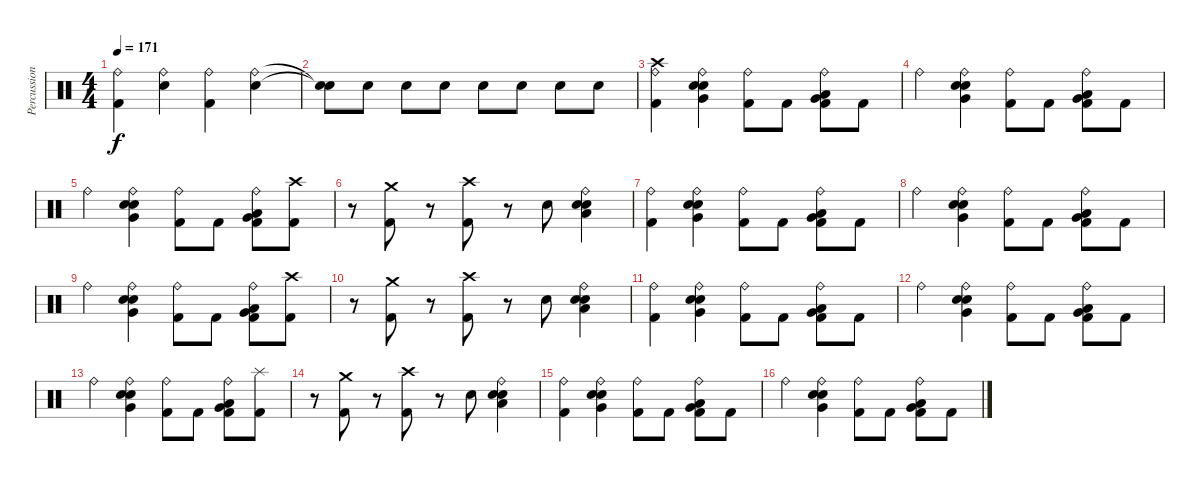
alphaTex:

\track ("Percussion" "Percussion") {instrument percussion}
\staff {score}
\articulation defaults
\ts (4 4)
\tempo 171
\clef neutral
\ks c
("Ride (bell)" "Kick (hit) 2").4{dy f} ("Ride (bell)" "Metronome (bell)").4 ("Ride (bell)" "Kick (hit) 2").4 ("Ride (bell)" "Metronome (bell)").4 |
("Snare (hit)"{t} "Snare (hit)"{t}).8 "Metronome (bell)".8 "Metronome (bell)".8 "Metronome (bell)".8 "Metronome (bell)".8 "Metronome (bell)".8 "Metronome (bell)".8 "Metronome (bell)".8 |
("Ride (bell)" "Crash high (hit)" "Kick (hit) 2").4 ("Ride (bell)" "Very Low Tom (hit)" "Metronome (bell)" "Electric Snare (hit)").4 ("Ride (bell)" "Kick (hit) 2").8 "Kick (hit) 2".8 ("Ride (bell)" "Very Low Tom (hit)" "Low Floor Tom (hit)" "Kick (hit) 2").8 "Kick (hit) 2".8 |
"Ride (bell)".4 ("Ride (bell)" "Very Low Tom (hit)" "Metronome (bell)" "Electric Snare (hit)").4 ("Ride (bell)" "Kick (hit) 2").8 "Kick (hit) 2".8 ("Ride (bell)" "Very Low Tom (hit)" "Low Floor Tom (hit)" "Kick (hit) 2").8 "Kick (hit) 2".8 |
"Ride (bell)".4 ("Ride (bell)" "Very Low Tom (hit)" "Metronome (bell)" "Electric Snare (hit)").4 ("Ride (bell)" "Kick (hit) 2").8 "Kick (hit) 2".8 ("Ride (bell)" "Very Low Tom (hit)" "Low Floor Tom (hit)" "Kick (hit) 2").8 ("Crash high (hit)" "Kick (hit) 2").8 |
r.8 ("Crash medium (hit)" "Kick (hit) 2").8 r.8 ("Crash high (hit)" "Kick (hit) 2").8 r.8 "Metronome (bell)".8 ("Ride (bell)" "Low Floor Tom (hit)" "Electric Snare (hit)" "Metronome (bell)").4 |
("Ride (bell)" "Kick (hit) 2").4 ("Ride (bell)" "Very Low Tom (hit)" "Metronome (bell)" "Electric Snare (hit)").4 ("Ride (bell)" "Kick (hit) 2").8 "Kick (hit) 2".8 ("Ride (bell)" "Very Low Tom (hit)" "Low Floor Tom (hit)" "Kick (hit) 2").8 "Kick (hit) 2".8 |
"Ride (bell)".4 ("Ride (bell)" "Very Low Tom (hit)" "Metronome (bell)" "Electric Snare (hit)").4 ("Ride (bell)" "Kick (hit) 2").8 "Kick (hit) 2".8 ("Ride (bell)" "Very Low Tom (hit)" "Low Floor Tom (hit)" "Kick (hit) 2").8 "Kick (hit) 2".8 |
"Ride (bell)".4 ("Ride (bell)" "Very Low Tom (hit)" "Metronome (bell)" "Electric Snare (hit)").4 ("Ride (bell)" "Kick (hit) 2").8 "Kick (hit) 2".8 ("Ride (bell)" "Very Low Tom (hit)" "Low Floor Tom (hit)" "Kick (hit) 2").8 ("Crash high (hit)" "Kick (hit) 2").8 |
r.8 ("Crash medium (hit)" "Kick (hit) 2").8 r.8 ("Crash high (hit)" "Kick (hit) 2").8 r.8 "Metronome (bell)".8 ("Ride (bell)" "Low Floor Tom (hit)" "Electric Snare (hit)" "Metronome (bell)").4 |
("Ride (bell)" "Kick (hit) 2").4 ("Ride (bell)" "Very Low Tom (hit)" "Metronome (bell)" "Electric Snare (hit)").4 ("Ride (bell)" "Kick (hit) 2").8 "Kick (hit) 2".8 ("Ride (bell)" "Very Low Tom (hit)" "Low Floor Tom (hit)" "Kick (hit) 2").8 "Kick (hit) 2".8 |
"Ride (bell)".4 ("Ride (bell)" "Very Low Tom (hit)" "Metronome (bell)" "Electric Snare (hit)").4 ("Ride (bell)" "Kick (hit) 2").8 "Kick (hit) 2".8 ("Ride (bell)" "Very Low Tom (hit)" "Low Floor Tom (hit)" "Kick (hit) 2").8 "Kick (hit) 2".8 |
"Ride (bell)".4 ("Ride (bell)" "Very Low Tom (hit)" "Metronome (bell)" "Electric Snare (hit)").4 ("Ride (bell)" "Kick (hit) 2").8 "Kick (hit) 2".8 ("Ride (bell)" "Very Low Tom (hit)" "Low Floor Tom (hit)" "Kick (hit) 2").8 ("Splash (hit)" "Kick (hit) 2").8 |
r.8 ("Crash medium (hit)" "Kick (hit) 2").8 r.8 ("Crash high (hit)" "Kick (hit) 2").8 r.8 "Metronome (bell)".8 ("Ride (bell)" "Low Floor Tom (hit)" "Electric Snare (hit)" "Metronome (bell)").4 |
("Ride (bell)" "Kick (hit) 2").4 ("Ride (bell)" "Very Low Tom (hit)" "Metronome (bell)" "Electric Snare (hit)").4 ("Ride (bell)" "Kick (hit) 2").8 "Kick (hit) 2".8 ("Ride (bell)" "Very Low Tom (hit)" "Low Floor Tom (hit)" "Kick (hit) 2").8 "Kick (hit) 2".8 |
"Ride (bell)".4 ("Ride (bell)" "Very Low Tom (hit)" "Metronome (bell)" "Electric Snare (hit)").4 ("Ride (bell)" "Kick (hit) 2").8 "Kick (hit) 2".8 ("Ride (bell)" "Very Low Tom (hit)" "Low Floor Tom (hit)" "Kick (hit) 2").8 "Kick (hit) 2".8
